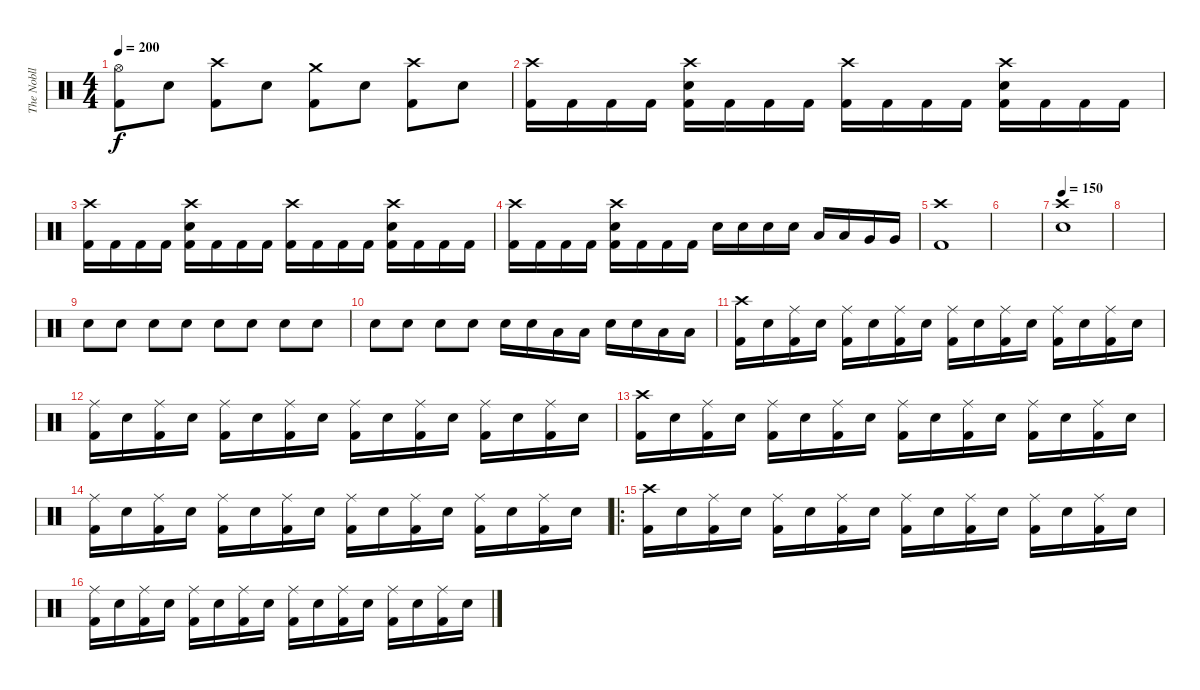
\track ("The Nobll" "The Nobll") {instrument percussion}
\staff {score}
\articulation defaults
\ts (4 4)
\tempo 200
\clef neutral
\ks c
("Hi-Hat (open)" "Kick (hit) 2").8{dy f} "Snare (hit) 2".8 ("Crash high (hit)" "Kick (hit) 2").8 "Snare (hit) 2".8 ("Crash medium (hit)" "Kick (hit) 2").8 "Snare (hit) 2".8 ("Crash high (hit)" "Kick (hit) 2").8 "Snare (hit) 2".8 |
("Crash high (hit)" "Kick (hit) 2").16 "Kick (hit) 2".16 "Kick (hit) 2".16 "Kick (hit) 2".16 ("Crash high (hit)" "Snare (hit) 2" "Kick (hit) 2").16 "Kick (hit) 2".16 "Kick (hit) 2".16 "Kick (hit) 2".16 ("Crash high (hit)" "Kick (hit) 2").16 "Kick (hit) 2".16 "Kick (hit) 2".16 "Kick (hit) 2".16 ("Crash high (hit)" "Snare (hit) 2" "Kick (hit) 2").16 "Kick (hit) 2".16 "Kick (hit) 2".16 "Kick (hit) 2".16 |
("Crash high (hit)" "Kick (hit) 2").16 "Kick (hit) 2".16 "Kick (hit) 2".16 "Kick (hit) 2".16 ("Crash high (hit)" "Snare (hit) 2" "Kick (hit) 2").16 "Kick (hit) 2".16 "Kick (hit) 2".16 "Kick (hit) 2".16 ("Crash high (hit)" "Kick (hit) 2").16 "Kick (hit) 2".16 "Kick (hit) 2".16 "Kick (hit) 2".16 ("Crash high (hit)" "Snare (hit) 2" "Kick (hit) 2").16 "Kick (hit) 2".16 "Kick (hit) 2".16 "Kick (hit) 2".16 |
("Crash high (hit)" "Kick (hit) 2").16 "Kick (hit) 2".16 "Kick (hit) 2".16 "Kick (hit) 2".16 ("Crash high (hit)" "Snare (hit) 2" "Kick (hit) 2").16 "Kick (hit) 2".16 "Kick (hit) 2".16 "Kick (hit) 2".16 "Snare (hit) 2".16 "Snare (hit) 2".16 "Snare (hit) 2".16 "Snare (hit) 2".16 "Low Tom (hit)".16 "Low Tom (hit)".16 "Very Low Tom (hit)".16 "Very Low Tom (hit)".16 |
("Crash high (hit)" "Kick (hit) 2").1 |
|
\tempo 150
("Crash high (hit)" "Snare (hit) 2").1 |
|
"Snare (hit) 2".8 "Snare (hit) 2".8 "Snare (hit) 2".8 "Snare (hit) 2".8 "Snare (hit) 2".8 "Snare (hit) 2".8 "Snare (hit) 2".8 "Snare (hit) 2".8 |
"Snare (hit) 2".8 "Snare (hit) 2".8 "Snare (hit) 2".8 "Snare (hit) 2".8 "Snare (hit) 2".16 "Snare (hit) 2".16 "Low Tom (hit)".16 "Low Tom (hit)".16 "Snare (hit) 2".16 "Snare (hit) 2".16 "Low Tom (hit)".16 "Low Tom (hit)".16 |
("Crash high (hit)" "Kick (hit) 2").16 "Snare (hit) 2".16 ("Ride (middle)" "Kick (hit) 2").16 "Snare (hit) 2".16 ("Ride (middle)" "Kick (hit) 2").16 "Snare (hit) 2".16 ("Ride (middle)" "Kick (hit) 2").16 "Snare (hit) 2".16 ("Ride (middle)" "Kick (hit) 2").16 "Snare (hit) 2".16 ("Ride (middle)" "Kick (hit) 2").16 "Snare (hit) 2".16 ("Ride (middle)" "Kick (hit) 2").16 "Snare (hit) 2".16 ("Ride (middle)" "Kick (hit) 2").16 "Snare (hit) 2".16 |
("Ride (middle)" "Kick (hit) 2").16 "Snare (hit) 2".16 ("Ride (middle)" "Kick (hit) 2").16 "Snare (hit) 2".16 ("Ride (middle)" "Kick (hit) 2").16 "Snare (hit) 2".16 ("Ride (middle)" "Kick (hit) 2").16 "Snare (hit) 2".16 ("Ride (middle)" "Kick (hit) 2").16 "Snare (hit) 2".16 ("Ride (middle)" "Kick (hit) 2").16 "Snare (hit) 2".16 ("Ride (middle)" "Kick (hit) 2").16 "Snare (hit) 2".16 ("Ride (middle)" "Kick (hit) 2").16 "Snare (hit) 2".16 |
("Crash high (hit)" "Kick (hit) 2").16 "Snare (hit) 2".16 ("Ride (middle)" "Kick (hit) 2").16 "Snare (hit) 2".16 ("Ride (middle)" "Kick (hit) 2").16 "Snare (hit) 2".16 ("Ride (middle)" "Kick (hit) 2").16 "Snare (hit) 2".16 ("Ride (middle)" "Kick (hit) 2").16 "Snare (hit) 2".16 ("Ride (middle)" "Kick (hit) 2").16 "Snare (hit) 2".16 ("Ride (middle)" "Kick (hit) 2").16 "Snare (hit) 2".16 ("Ride (middle)" "Kick (hit) 2").16 "Snare (hit) 2".16 |
("Ride (middle)" "Kick (hit) 2").16 "Snare (hit) 2".16 ("Ride (middle)" "Kick (hit) 2").16 "Snare (hit) 2".16 ("Ride (middle)" "Kick (hit) 2").16 "Snare (hit) 2".16 ("Ride (middle)" "Kick (hit) 2").16 "Snare (hit) 2".16 ("Ride (middle)" "Kick (hit) 2").16 "Snare (hit) 2".16 ("Ride (middle)" "Kick (hit) 2").16 "Snare (hit) 2".16 ("Ride (middle)" "Kick (hit) 2").16 "Snare (hit) 2".16 ("Ride (middle)" "Kick (hit) 2").16 "Snare (hit) 2".16 |
\ro
("Crash high (hit)" "Kick (hit) 2").16 "Snare (hit) 2".16 ("Ride (middle)" "Kick (hit) 2").16 "Snare (hit) 2".16 ("Ride (middle)" "Kick (hit) 2").16 "Snare (hit) 2".16 ("Ride (middle)" "Kick (hit) 2").16 "Snare (hit) 2".16 ("Ride (middle)" "Kick (hit) 2").16 "Snare (hit) 2".16 ("Ride (middle)" "Kick (hit) 2").16 "Snare (hit) 2".16 ("Ride (middle)" "Kick (hit) 2").16 "Snare (hit) 2".16 ("Ride (middle)" "Kick (hit) 2").16 "Snare (hit) 2".16 |
("Ride (middle)" "Kick (hit) 2").16 "Snare (hit) 2".16 ("Ride (middle)" "Kick (hit) 2").16 "Snare (hit) 2".16 ("Ride (middle)" "Kick (hit) 2").16 "Snare (hit) 2".16 ("Ride (middle)" "Kick (hit) 2").16 "Snare (hit) 2".16 ("Ride (middle)" "Kick (hit) 2").16 "Snare (hit) 2".16 ("Ride (middle)" "Kick (hit) 2").16 "Snare (hit) 2".16 ("Ride (middle)" "Kick (hit) 2").16 "Snare (hit) 2".16 ("Ride (middle)" "Kick (hit) 2").16 "Snare (hit) 2".16
